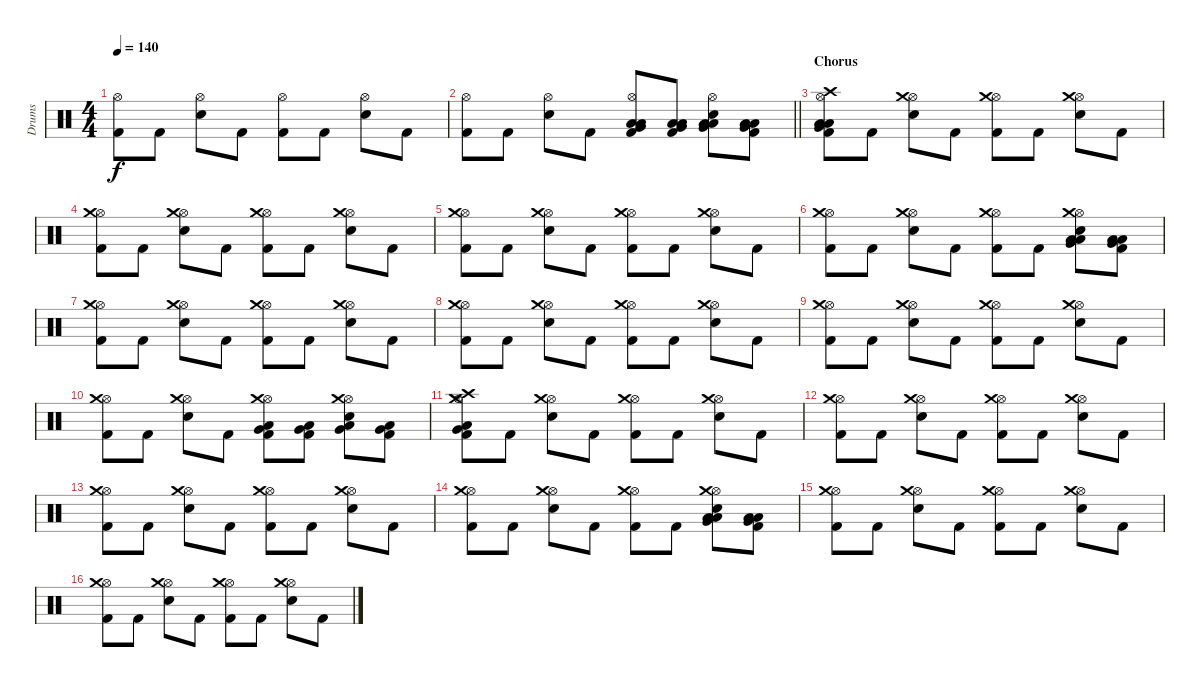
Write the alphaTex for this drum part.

\track ("Drums" "Drums") {instrument percussion}
\staff {score}
\articulation defaults
\ts (4 4)
\tempo 140
\clef neutral
\ks c
("Kick (hit) 2" "Hi-Hat (open)").8{dy f} "Kick (hit) 2".8 ("Electric Snare (hit)" "Hi-Hat (open)").8 "Kick (hit) 2".8 ("Kick (hit) 2" "Hi-Hat (open)").8 "Kick (hit) 2".8 ("Electric Snare (hit)" "Hi-Hat (open)").8 "Kick (hit) 2".8 |
\barLineRight lightlight
("Kick (hit) 2" "Hi-Hat (open)").8 "Kick (hit) 2".8 ("Electric Snare (hit)" "Hi-Hat (open)").8 "Kick (hit) 2".8 ("Kick (hit) 2" "Hi-Hat (open)" "Low Floor Tom (hit)" "Very Low Tom (hit)" "Low Tom (hit)").8 ("Kick (hit) 2" "Low Floor Tom (hit)" "Very Low Tom (hit)" "Low Tom (hit)").8 ("Electric Snare (hit)" "Hi-Hat (open)" "Low Floor Tom (hit)" "Very Low Tom (hit)" "Low Tom (hit)").8 ("Kick (hit) 2" "Low Floor Tom (hit)" "Very Low Tom (hit)" "Low Tom (hit)").8 |
\section ("" "Chorus")
("Kick (hit) 2" "Hi-Hat (open)" "Low Floor Tom (hit)" "Very Low Tom (hit)" "Low Tom (hit)" "Crash high (hit)").8 "Kick (hit) 2".8 ("Electric Snare (hit)" "Hi-Hat (open)" "Crash medium (hit)").8 "Kick (hit) 2".8 ("Kick (hit) 2" "Hi-Hat (open)" "Crash medium (hit)").8 "Kick (hit) 2".8 ("Electric Snare (hit)" "Hi-Hat (open)" "Crash medium (hit)").8 "Kick (hit) 2".8 |
("Kick (hit) 2" "Hi-Hat (open)" "Crash medium (hit)").8 "Kick (hit) 2".8 ("Electric Snare (hit)" "Hi-Hat (open)" "Crash medium (hit)").8 "Kick (hit) 2".8 ("Kick (hit) 2" "Hi-Hat (open)" "Crash medium (hit)").8 "Kick (hit) 2".8 ("Electric Snare (hit)" "Hi-Hat (open)" "Crash medium (hit)").8 "Kick (hit) 2".8 |
("Kick (hit) 2" "Hi-Hat (open)" "Crash medium (hit)").8 "Kick (hit) 2".8 ("Electric Snare (hit)" "Hi-Hat (open)" "Crash medium (hit)").8 "Kick (hit) 2".8 ("Kick (hit) 2" "Hi-Hat (open)" "Crash medium (hit)").8 "Kick (hit) 2".8 ("Electric Snare (hit)" "Hi-Hat (open)" "Crash medium (hit)").8 "Kick (hit) 2".8 |
("Kick (hit) 2" "Hi-Hat (open)" "Crash medium (hit)").8 "Kick (hit) 2".8 ("Electric Snare (hit)" "Hi-Hat (open)" "Crash medium (hit)").8 "Kick (hit) 2".8 ("Kick (hit) 2" "Hi-Hat (open)" "Crash medium (hit)").8 "Kick (hit) 2".8 ("Electric Snare (hit)" "Hi-Hat (open)" "Crash medium (hit)" "Low Floor Tom (hit)" "Very Low Tom (hit)" "Low Tom (hit)").8 ("Kick (hit) 2" "Low Floor Tom (hit)" "Very Low Tom (hit)" "Low Tom (hit)").8 |
("Kick (hit) 2" "Hi-Hat (open)" "Crash medium (hit)").8 "Kick (hit) 2".8 ("Electric Snare (hit)" "Hi-Hat (open)" "Crash medium (hit)").8 "Kick (hit) 2".8 ("Kick (hit) 2" "Hi-Hat (open)" "Crash medium (hit)").8 "Kick (hit) 2".8 ("Electric Snare (hit)" "Hi-Hat (open)" "Crash medium (hit)").8 "Kick (hit) 2".8 |
("Kick (hit) 2" "Hi-Hat (open)" "Crash medium (hit)").8 "Kick (hit) 2".8 ("Electric Snare (hit)" "Hi-Hat (open)" "Crash medium (hit)").8 "Kick (hit) 2".8 ("Kick (hit) 2" "Hi-Hat (open)" "Crash medium (hit)").8 "Kick (hit) 2".8 ("Electric Snare (hit)" "Hi-Hat (open)" "Crash medium (hit)").8 "Kick (hit) 2".8 |
("Kick (hit) 2" "Hi-Hat (open)" "Crash medium (hit)").8 "Kick (hit) 2".8 ("Electric Snare (hit)" "Hi-Hat (open)" "Crash medium (hit)").8 "Kick (hit) 2".8 ("Kick (hit) 2" "Hi-Hat (open)" "Crash medium (hit)").8 "Kick (hit) 2".8 ("Electric Snare (hit)" "Hi-Hat (open)" "Crash medium (hit)").8 "Kick (hit) 2".8 |
("Kick (hit) 2" "Hi-Hat (open)" "Crash medium (hit)").8 "Kick (hit) 2".8 ("Electric Snare (hit)" "Hi-Hat (open)" "Crash medium (hit)").8 "Kick (hit) 2".8 ("Kick (hit) 2" "Hi-Hat (open)" "Crash medium (hit)" "Very Low Tom (hit)" "Low Tom (hit)").8 ("Kick (hit) 2" "Very Low Tom (hit)" "Low Tom (hit)").8 ("Electric Snare (hit)" "Hi-Hat (open)" "Crash medium (hit)" "Very Low Tom (hit)" "Low Tom (hit)").8 ("Kick (hit) 2" "Very Low Tom (hit)" "Low Tom (hit)").8 |
("Kick (hit) 2" "Hi-Hat (open)" "Crash medium (hit)" "Very Low Tom (hit)" "Low Tom (hit)" "Crash high (hit)").8 "Kick (hit) 2".8 ("Electric Snare (hit)" "Hi-Hat (open)" "Crash medium (hit)").8 "Kick (hit) 2".8 ("Kick (hit) 2" "Hi-Hat (open)" "Crash medium (hit)").8 "Kick (hit) 2".8 ("Electric Snare (hit)" "Hi-Hat (open)" "Crash medium (hit)").8 "Kick (hit) 2".8 |
("Kick (hit) 2" "Hi-Hat (open)" "Crash medium (hit)").8 "Kick (hit) 2".8 ("Electric Snare (hit)" "Hi-Hat (open)" "Crash medium (hit)").8 "Kick (hit) 2".8 ("Kick (hit) 2" "Hi-Hat (open)" "Crash medium (hit)").8 "Kick (hit) 2".8 ("Electric Snare (hit)" "Hi-Hat (open)" "Crash medium (hit)").8 "Kick (hit) 2".8 |
("Kick (hit) 2" "Hi-Hat (open)" "Crash medium (hit)").8 "Kick (hit) 2".8 ("Electric Snare (hit)" "Hi-Hat (open)" "Crash medium (hit)").8 "Kick (hit) 2".8 ("Kick (hit) 2" "Hi-Hat (open)" "Crash medium (hit)").8 "Kick (hit) 2".8 ("Electric Snare (hit)" "Hi-Hat (open)" "Crash medium (hit)").8 "Kick (hit) 2".8 |
("Kick (hit) 2" "Hi-Hat (open)" "Crash medium (hit)").8 "Kick (hit) 2".8 ("Electric Snare (hit)" "Hi-Hat (open)" "Crash medium (hit)").8 "Kick (hit) 2".8 ("Kick (hit) 2" "Hi-Hat (open)" "Crash medium (hit)").8 "Kick (hit) 2".8 ("Electric Snare (hit)" "Hi-Hat (open)" "Crash medium (hit)" "Low Floor Tom (hit)" "Very Low Tom (hit)" "Low Tom (hit)").8 ("Kick (hit) 2" "Low Floor Tom (hit)" "Very Low Tom (hit)" "Low Tom (hit)").8 |
("Kick (hit) 2" "Hi-Hat (open)" "Crash medium (hit)").8 "Kick (hit) 2".8 ("Electric Snare (hit)" "Hi-Hat (open)" "Crash medium (hit)").8 "Kick (hit) 2".8 ("Kick (hit) 2" "Hi-Hat (open)" "Crash medium (hit)").8 "Kick (hit) 2".8 ("Electric Snare (hit)" "Hi-Hat (open)" "Crash medium (hit)").8 "Kick (hit) 2".8 |
("Kick (hit) 2" "Hi-Hat (open)" "Crash medium (hit)").8 "Kick (hit) 2".8 ("Electric Snare (hit)" "Hi-Hat (open)" "Crash medium (hit)").8 "Kick (hit) 2".8 ("Kick (hit) 2" "Hi-Hat (open)" "Crash medium (hit)").8 "Kick (hit) 2".8 ("Electric Snare (hit)" "Hi-Hat (open)" "Crash medium (hit)").8 "Kick (hit) 2".8
